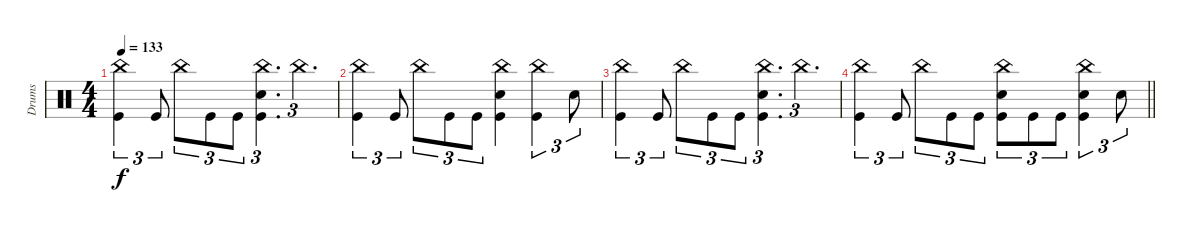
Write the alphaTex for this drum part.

\track ("Drums" "Drums") {instrument percussion}
\staff
\articulation defaults
\ts (4 4)
\tempo 133
\clef neutral
\ks c
("China (hit)" "Kick (hit)").4{tu (3 2) dy f} "Kick (hit)".8{tu (3 2)} "China (hit)".8{tu (3 2)} "Kick (hit)".8{tu (3 2)} "Kick (hit)".8{tu (3 2)} ("China (hit)" "Electric Snare (hit)" "Kick (hit)").4{d tu (3 2)} "China (hit)".4{d tu (3 2)} |
("China (hit)" "Kick (hit)").4{tu (3 2)} "Kick (hit)".8{tu (3 2)} "China (hit)".8{tu (3 2)} "Kick (hit)".8{tu (3 2)} "Kick (hit)".8{tu (3 2)} ("China (hit)" "Electric Snare (hit)" "Kick (hit)").4 ("China (hit)" "Kick (hit)").4{tu (3 2)} "Electric Snare (hit)".8{tu (3 2)} |
("China (hit)" "Kick (hit)").4{tu (3 2)} "Kick (hit)".8{tu (3 2)} "China (hit)".8{tu (3 2)} "Kick (hit)".8{tu (3 2)} "Kick (hit)".8{tu (3 2)} ("China (hit)" "Electric Snare (hit)" "Kick (hit)").4{d tu (3 2)} "China (hit)".4{d tu (3 2)} |
\barLineRight lightlight
("China (hit)" "Kick (hit)").4{tu (3 2)} "Kick (hit)".8{tu (3 2)} "China (hit)".8{tu (3 2)} "Kick (hit)".8{tu (3 2)} "Kick (hit)".8{tu (3 2)} ("China (hit)" "Electric Snare (hit)" "Kick (hit)").8{tu (3 2)} "Kick (hit)".8{tu (3 2)} "Kick (hit)".8{tu (3 2)} ("China (hit)" "Electric Snare (hit)" "Kick (hit)").4{tu (3 2)} "Electric Snare (hit)".8{tu (3 2)}
